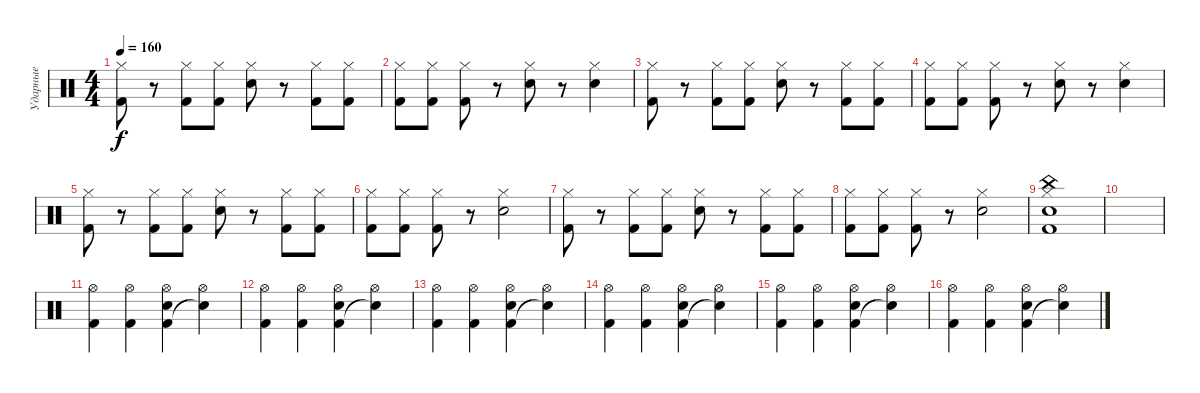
\track ("Ударные" "Ударные") {instrument percussion}
\staff {score}
\articulation defaults
\ts (4 4)
\tempo 160
\clef neutral
\ks c
("Kick (hit) 2" "Hi-Hat (closed)").8{dy f} r.8 ("Kick (hit) 2" "Hi-Hat (closed)").8 ("Kick (hit) 2" "Hi-Hat (closed)").8 ("Electric Snare (hit)" "Hi-Hat (closed)").8 r.8 ("Kick (hit) 2" "Hi-Hat (closed)").8 ("Kick (hit) 2" "Hi-Hat (closed)").8 |
("Kick (hit) 2" "Hi-Hat (closed)").8 ("Kick (hit) 2" "Hi-Hat (closed)").8 ("Kick (hit) 2" "Hi-Hat (closed)").8 r.8 ("Electric Snare (hit)" "Hi-Hat (closed)").8 r.8 ("Electric Snare (hit)" "Hi-Hat (closed)").4 |
("Kick (hit) 2" "Hi-Hat (closed)").8 r.8 ("Kick (hit) 2" "Hi-Hat (closed)").8 ("Kick (hit) 2" "Hi-Hat (closed)").8 ("Electric Snare (hit)" "Hi-Hat (closed)").8 r.8 ("Kick (hit) 2" "Hi-Hat (closed)").8 ("Kick (hit) 2" "Hi-Hat (closed)").8 |
("Kick (hit) 2" "Hi-Hat (closed)").8 ("Kick (hit) 2" "Hi-Hat (closed)").8 ("Kick (hit) 2" "Hi-Hat (closed)").8 r.8 ("Electric Snare (hit)" "Hi-Hat (closed)").8 r.8 ("Electric Snare (hit)" "Hi-Hat (closed)").4 |
("Kick (hit) 2" "Hi-Hat (closed)").8 r.8 ("Kick (hit) 2" "Hi-Hat (closed)").8 ("Kick (hit) 2" "Hi-Hat (closed)").8 ("Electric Snare (hit)" "Hi-Hat (closed)").8 r.8 ("Kick (hit) 2" "Hi-Hat (closed)").8 ("Kick (hit) 2" "Hi-Hat (closed)").8 |
("Kick (hit) 2" "Hi-Hat (closed)").8 ("Kick (hit) 2" "Hi-Hat (closed)").8 ("Kick (hit) 2" "Hi-Hat (closed)").8 r.8 ("Electric Snare (hit)" "Hi-Hat (closed)").2 |
("Kick (hit) 2" "Hi-Hat (closed)").8 r.8 ("Kick (hit) 2" "Hi-Hat (closed)").8 ("Kick (hit) 2" "Hi-Hat (closed)").8 ("Electric Snare (hit)" "Hi-Hat (closed)").8 r.8 ("Kick (hit) 2" "Hi-Hat (closed)").8 ("Kick (hit) 2" "Hi-Hat (closed)").8 |
("Kick (hit) 2" "Hi-Hat (closed)").8 ("Kick (hit) 2" "Hi-Hat (closed)").8 ("Kick (hit) 2" "Hi-Hat (closed)").8 r.8 ("Electric Snare (hit)" "Hi-Hat (closed)").2 |
("China (hit)" "Electric Snare (hit)" "Kick (hit) 2" "Hi-Hat (closed)").1 |
|
("Kick (hit) 2" "Hi-Hat (open)").4 ("Kick (hit) 2" "Hi-Hat (open)").4 ("Kick (hit) 2" "Electric Snare (hit)" "Hi-Hat (open)").4 ("Snare (hit)"{t} "Hi-Hat (open)").4 |
("Kick (hit) 2" "Hi-Hat (open)").4 ("Kick (hit) 2" "Hi-Hat (open)").4 ("Kick (hit) 2" "Electric Snare (hit)" "Hi-Hat (open)").4 ("Snare (hit)"{t} "Hi-Hat (open)").4 |
("Kick (hit) 2" "Hi-Hat (open)").4 ("Kick (hit) 2" "Hi-Hat (open)").4 ("Kick (hit) 2" "Electric Snare (hit)" "Hi-Hat (open)").4 ("Snare (hit)"{t} "Hi-Hat (open)").4 |
("Kick (hit) 2" "Hi-Hat (open)").4 ("Kick (hit) 2" "Hi-Hat (open)").4 ("Kick (hit) 2" "Electric Snare (hit)" "Hi-Hat (open)").4 ("Snare (hit)"{t} "Hi-Hat (open)").4 |
("Kick (hit) 2" "Hi-Hat (open)").4 ("Kick (hit) 2" "Hi-Hat (open)").4 ("Kick (hit) 2" "Electric Snare (hit)" "Hi-Hat (open)").4 ("Snare (hit)"{t} "Hi-Hat (open)").4 |
("Kick (hit) 2" "Hi-Hat (open)").4 ("Kick (hit) 2" "Hi-Hat (open)").4 ("Kick (hit) 2" "Electric Snare (hit)" "Hi-Hat (open)").4 ("Snare (hit)"{t} "Hi-Hat (open)").4
